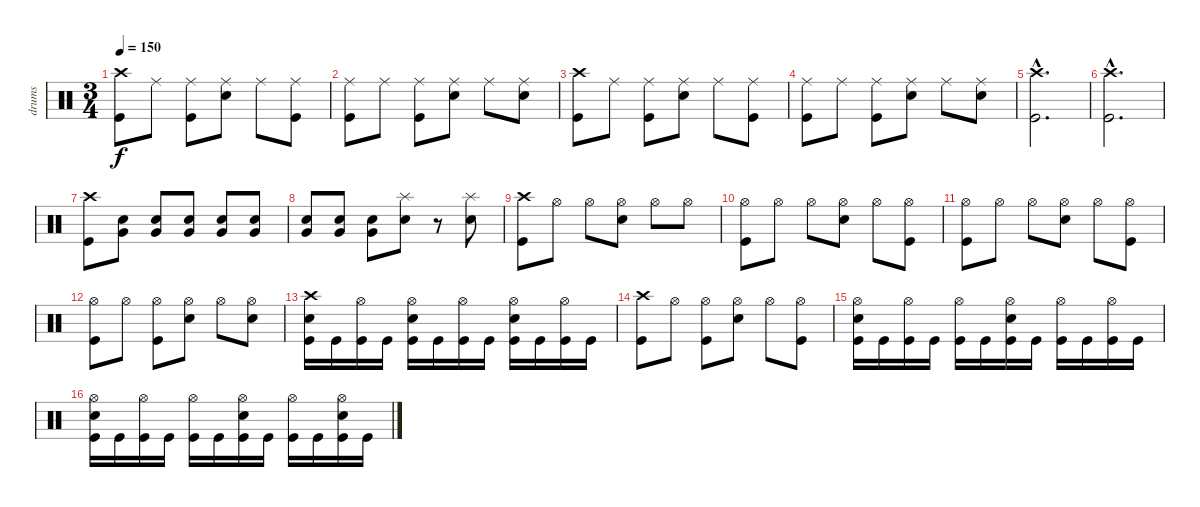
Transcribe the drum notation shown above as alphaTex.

\track ("drums" "drums") {instrument percussion}
\staff {score}
\articulation defaults
\ts (3 4)
\tempo 150
\clef neutral
\ks c
("Crash high (hit)" "Kick (hit)").8{dy f} "Ride (middle)".8 ("Ride (middle)" "Kick (hit)").8 ("Ride (middle)" "Snare (hit) 2").8 "Ride (middle)".8 ("Ride (middle)" "Kick (hit)").8 |
("Ride (middle)" "Kick (hit)").8 "Ride (middle)".8 ("Ride (middle)" "Kick (hit)").8 ("Ride (middle)" "Snare (hit) 2").8 "Ride (middle)".8 ("Ride (middle)" "Snare (hit) 2").8 |
("Crash high (hit)" "Kick (hit)").8 "Ride (middle)".8 ("Ride (middle)" "Kick (hit)").8 ("Ride (middle)" "Snare (hit) 2").8 "Ride (middle)".8 ("Ride (middle)" "Kick (hit)").8 |
("Ride (middle)" "Kick (hit)").8 "Ride (middle)".8 ("Ride (middle)" "Kick (hit)").8 ("Ride (middle)" "Snare (hit) 2").8 "Ride (middle)".8 ("Ride (middle)" "Snare (hit) 2").8 |
("Crash high (hit)"{hac} "Kick (hit)"{hac}).2{d} |
("Crash high (hit)"{hac} "Kick (hit)"{hac}).2{d} |
("Crash high (hit)" "Kick (hit)").8 ("Snare (hit) 2" "Very Low Tom (hit)").8 ("Snare (hit) 2" "Very Low Tom (hit)").8 ("Snare (hit) 2" "Very Low Tom (hit)").8 ("Snare (hit) 2" "Very Low Tom (hit)").8 ("Snare (hit) 2" "Very Low Tom (hit)").8 |
("Snare (hit) 2" "Very Low Tom (hit)").8 ("Snare (hit) 2" "Very Low Tom (hit)").8 ("Snare (hit) 2" "Very Low Tom (hit)").8 ("Splash (hit)" "Snare (hit) 2").8 r.8 ("Splash (hit)" "Snare (hit) 2").8 |
("Crash high (hit)" "Kick (hit)").8 "Hi-Hat (open)".8 "Hi-Hat (open)".8 ("Hi-Hat (open)" "Snare (hit) 2").8 "Hi-Hat (open)".8 "Hi-Hat (open)".8 |
("Hi-Hat (open)" "Kick (hit)").8 "Hi-Hat (open)".8 "Hi-Hat (open)".8 ("Hi-Hat (open)" "Snare (hit) 2").8 "Hi-Hat (open)".8 ("Hi-Hat (open)" "Kick (hit)").8 |
("Hi-Hat (open)" "Kick (hit)").8 "Hi-Hat (open)".8 "Hi-Hat (open)".8 ("Hi-Hat (open)" "Snare (hit) 2").8 "Hi-Hat (open)".8 ("Hi-Hat (open)" "Kick (hit)").8 |
("Hi-Hat (open)" "Kick (hit)").8 "Hi-Hat (open)".8 ("Hi-Hat (open)" "Kick (hit)").8 ("Hi-Hat (open)" "Snare (hit) 2").8 "Hi-Hat (open)".8 ("Hi-Hat (open)" "Snare (hit) 2").8 |
("Crash high (hit)" "Snare (hit) 2" "Kick (hit)").16 "Kick (hit)".16 ("Hi-Hat (open)" "Kick (hit)").16 "Kick (hit)".16 ("Hi-Hat (open)" "Snare (hit) 2" "Kick (hit)").16 "Kick (hit)".16 ("Hi-Hat (open)" "Kick (hit)").16 "Kick (hit)".16 ("Hi-Hat (open)" "Snare (hit) 2" "Kick (hit)").16 "Kick (hit)".16 ("Hi-Hat (open)" "Kick (hit)").16 "Kick (hit)".16 |
("Crash high (hit)" "Kick (hit)").8 "Hi-Hat (open)".8 ("Hi-Hat (open)" "Kick (hit)").8 ("Hi-Hat (open)" "Snare (hit) 2").8 "Hi-Hat (open)".8 ("Hi-Hat (open)" "Kick (hit)").8 |
("Hi-Hat (open)" "Snare (hit) 2" "Kick (hit)").16 "Kick (hit)".16 ("Hi-Hat (open)" "Kick (hit)").16 "Kick (hit)".16 ("Hi-Hat (open)" "Kick (hit)").16 "Kick (hit)".16 ("Hi-Hat (open)" "Snare (hit) 2" "Kick (hit)").16 "Kick (hit)".16 ("Hi-Hat (open)" "Kick (hit)").16 "Kick (hit)".16 ("Hi-Hat (open)" "Kick (hit)").16 "Kick (hit)".16 |
("Hi-Hat (open)" "Snare (hit) 2" "Kick (hit)").16 "Kick (hit)".16 ("Hi-Hat (open)" "Kick (hit)").16 "Kick (hit)".16 ("Hi-Hat (open)" "Kick (hit)").16 "Kick (hit)".16 ("Hi-Hat (open)" "Snare (hit) 2" "Kick (hit)").16 "Kick (hit)".16 ("Hi-Hat (open)" "Kick (hit)").16 "Kick (hit)".16 ("Hi-Hat (open)" "Snare (hit) 2" "Kick (hit)").16 "Kick (hit)".16
